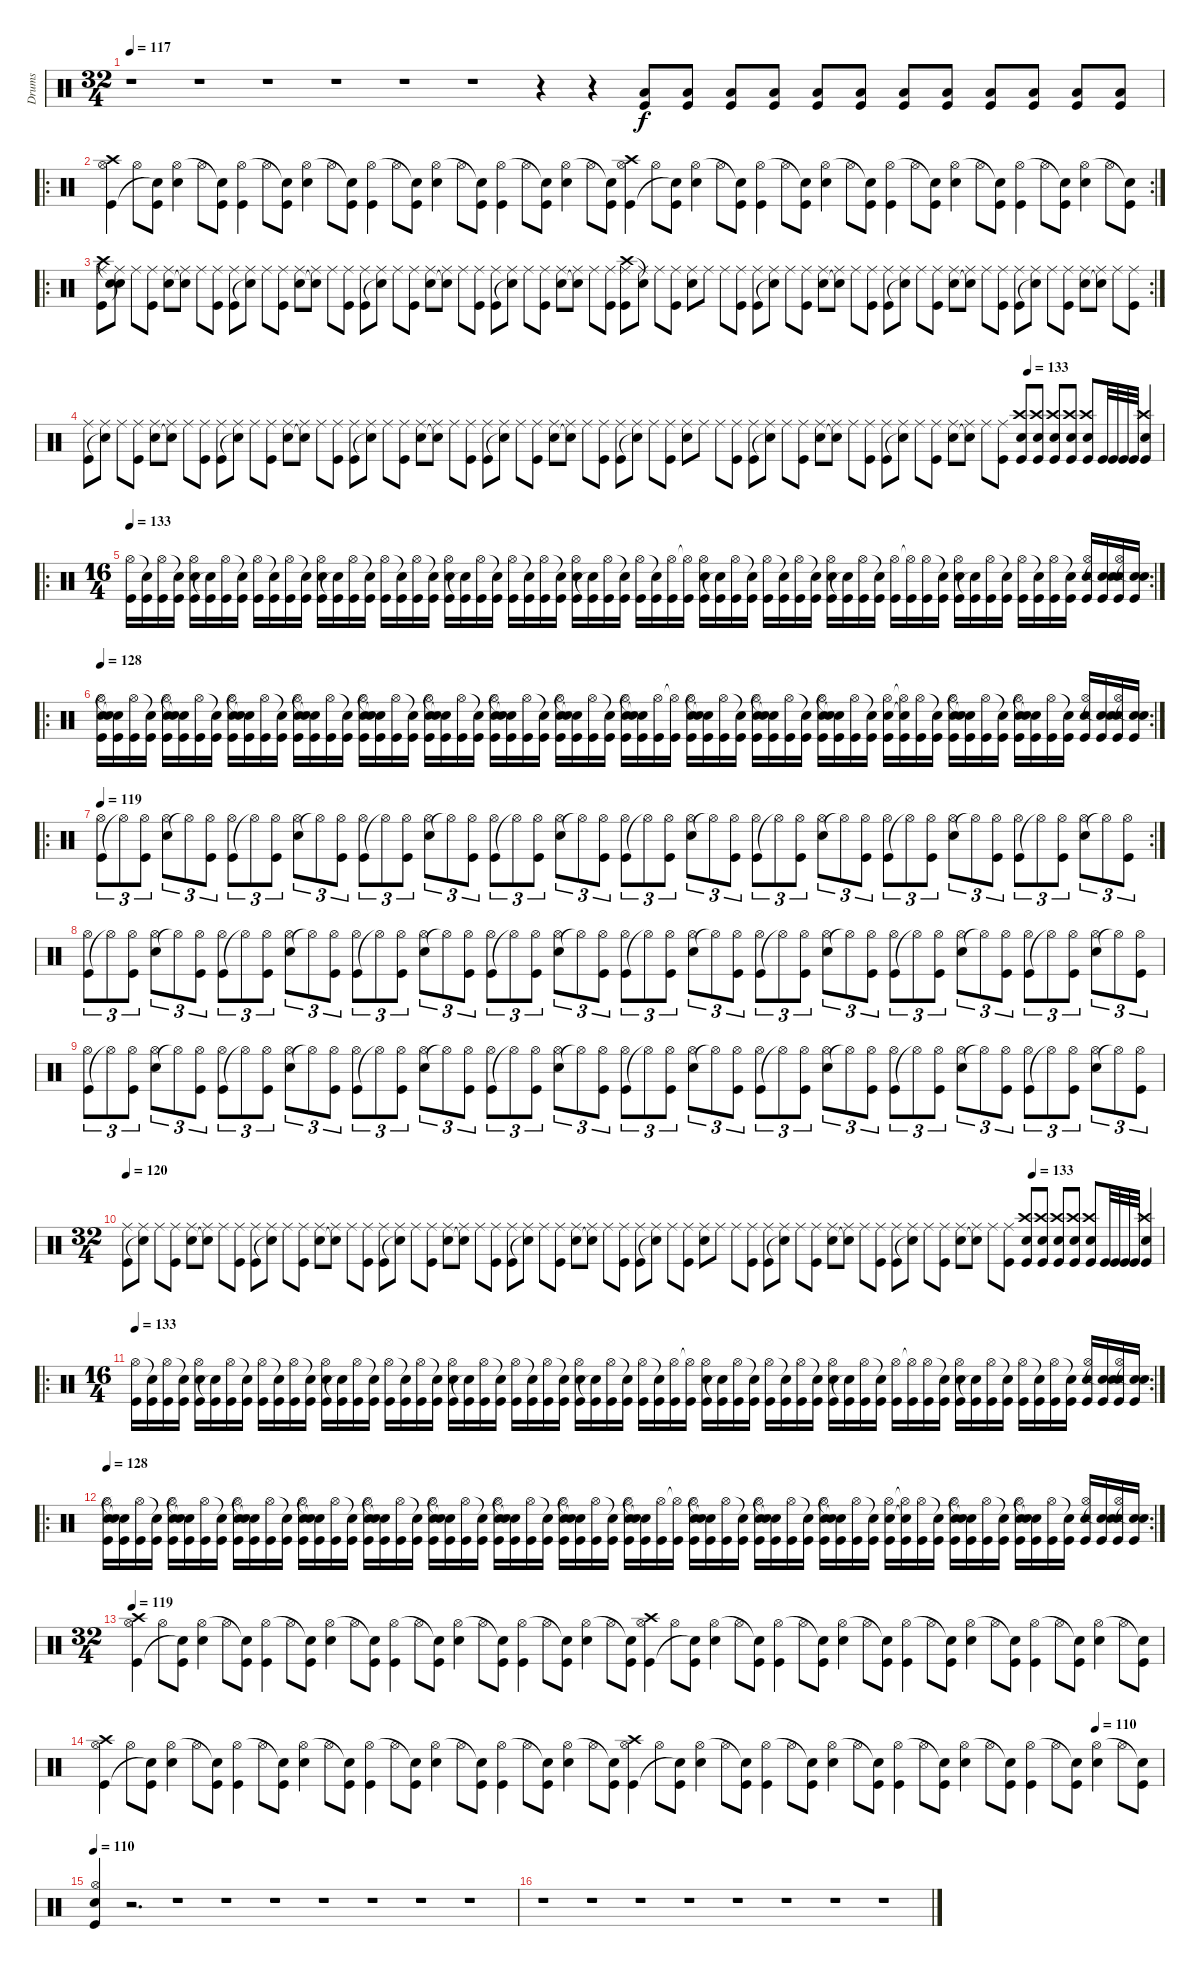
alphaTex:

\track ("Drums" "Drums") {instrument percussion}
\staff {score}
\articulation defaults
\ts (32 4)
\tempo 117
\clef neutral
\ks c
r.1{dy f} r.1 r.1 r.1 r.1 r.1 r.4 r.4 ("Low Tom (hit)" "Kick (hit)").8 ("Low Tom (hit)" "Kick (hit)").8 ("Low Tom (hit)" "Kick (hit)").8 ("Low Tom (hit)" "Kick (hit)").8 ("Low Tom (hit)" "Kick (hit)").8 ("Low Tom (hit)" "Kick (hit)").8 ("Low Tom (hit)" "Kick (hit)").8 ("Low Tom (hit)" "Kick (hit)").8 ("Low Tom (hit)" "Kick (hit)").8 ("Low Tom (hit)" "Kick (hit)").8 ("Low Tom (hit)" "Kick (hit)").8 ("Low Tom (hit)" "Kick (hit)").8 |
\ro
\rc 2
("Crash high (hit)" "Kick (hit)" "Hi-Hat (open)").4 "Hi-Hat (open)".8 ("Kick (hit)" "Snare (hit)"{t}).8 ("Snare (hit) 2" "Hi-Hat (open)").4 "Hi-Hat (open)".8 ("Kick (hit)" "Snare (hit)"{t}).8 ("Kick (hit)" "Hi-Hat (open)").4 "Hi-Hat (open)".8 ("Kick (hit)" "Snare (hit)"{t}).8 ("Snare (hit) 2" "Hi-Hat (open)").4 "Hi-Hat (open)".8 ("Kick (hit)" "Snare (hit)"{t}).8 ("Kick (hit)" "Hi-Hat (open)").4 "Hi-Hat (open)".8 ("Kick (hit)" "Snare (hit)"{t}).8 ("Snare (hit) 2" "Hi-Hat (open)").4 "Hi-Hat (open)".8 ("Kick (hit)" "Snare (hit)"{t}).8 ("Kick (hit)" "Hi-Hat (open)").4 "Hi-Hat (open)".8 ("Kick (hit)" "Snare (hit)"{t}).8 ("Snare (hit) 2" "Hi-Hat (open)").4 "Hi-Hat (open)".8 ("Kick (hit)" "Snare (hit)"{t}).8 ("Crash high (hit)" "Kick (hit)" "Hi-Hat (open)").4 "Hi-Hat (open)".8 ("Kick (hit)" "Snare (hit)"{t}).8 ("Snare (hit) 2" "Hi-Hat (open)").4 "Hi-Hat (open)".8 ("Kick (hit)" "Snare (hit)"{t}).8 ("Kick (hit)" "Hi-Hat (open)").4 "Hi-Hat (open)".8 ("Kick (hit)" "Snare (hit)"{t}).8 ("Snare (hit) 2" "Hi-Hat (open)").4 "Hi-Hat (open)".8 ("Kick (hit)" "Snare (hit)"{t}).8 ("Kick (hit)" "Hi-Hat (open)").4 "Hi-Hat (open)".8 ("Kick (hit)" "Snare (hit)"{t}).8 ("Snare (hit) 2" "Hi-Hat (open)").4 "Hi-Hat (open)".8 ("Kick (hit)" "Snare (hit)"{t}).8 ("Kick (hit)" "Hi-Hat (open)").4 "Hi-Hat (open)".8 ("Kick (hit)" "Snare (hit)"{t}).8 ("Snare (hit) 2" "Hi-Hat (open)").4 "Hi-Hat (open)".8 ("Kick (hit)" "Snare (hit)"{t}).8 |
\ro
\rc 2
("Crash high (hit)" "Kick (hit)" "Ride (middle)").8 ("Snare (hit)"{t} "Snare (hit)"{t} "Ride (middle)").8 "Ride (middle)".8 ("Kick (hit)" "Ride (middle)").8 ("Snare (hit) 2" "Ride (middle)").8 ("Snare (hit)"{t} "Ride (middle)").8 "Ride (middle)".8 ("Kick (hit)" "Ride (middle)").8 ("Kick (hit)" "Ride (middle)").8 ("Snare (hit)"{t} "Ride (middle)").8 "Ride (middle)".8 ("Kick (hit)" "Ride (middle)").8 ("Snare (hit) 2" "Ride (middle)").8 ("Snare (hit)"{t} "Ride (middle)").8 "Ride (middle)".8 ("Kick (hit)" "Ride (middle)").8 ("Kick (hit)" "Ride (middle)").8 ("Snare (hit)"{t} "Ride (middle)").8 "Ride (middle)".8 ("Kick (hit)" "Ride (middle)").8 ("Snare (hit) 2" "Ride (middle)").8 ("Snare (hit)"{t} "Ride (middle)").8 "Ride (middle)".8 ("Kick (hit)" "Ride (middle)").8 ("Kick (hit)" "Ride (middle)").8 ("Snare (hit)"{t} "Ride (middle)").8 "Ride (middle)".8 ("Kick (hit)" "Ride (middle)").8 ("Snare (hit) 2" "Ride (middle)").8 ("Snare (hit)"{t} "Ride (middle)").8 "Ride (middle)".8 ("Kick (hit)" "Ride (middle)").8 ("Crash high (hit)" "Kick (hit)" "Ride (middle)").8 ("Snare (hit)"{t} "Ride (middle)").8 "Ride (middle)".8 ("Kick (hit)" "Ride (middle)").8 ("Snare (hit) 2" "Ride (middle)").8 "Ride (middle)".8 "Ride (middle)".8 ("Kick (hit)" "Ride (middle)").8 ("Kick (hit)" "Ride (middle)").8 ("Snare (hit)"{t} "Ride (middle)").8 "Ride (middle)".8 ("Kick (hit)" "Ride (middle)").8 ("Snare (hit) 2" "Ride (middle)").8 ("Snare (hit)"{t} "Ride (middle)").8 "Ride (middle)".8 ("Kick (hit)" "Ride (middle)").8 ("Kick (hit)" "Ride (middle)").8 ("Snare (hit)"{t} "Ride (middle)").8 "Ride (middle)".8 ("Kick (hit)" "Ride (middle)").8 ("Snare (hit) 2" "Ride (middle)").8 ("Snare (hit)"{t} "Ride (middle)").8 "Ride (middle)".8 ("Kick (hit)" "Ride (middle)").8 ("Kick (hit)" "Ride (middle)").8 ("Snare (hit)"{t} "Ride (middle)").8 "Ride (middle)".8 ("Kick (hit)" "Ride (middle)").8 ("Snare (hit) 2" "Ride (middle)").8 ("Snare (hit)"{t} "Ride (middle)").8 "Ride (middle)".8 ("Kick (hit)" "Ride (middle)").8 |
\tempo (133 0.875)
("Kick (hit)" "Ride (middle)").8 ("Snare (hit)"{t} "Ride (middle)").8 "Ride (middle)".8 ("Kick (hit)" "Ride (middle)").8 ("Snare (hit) 2" "Ride (middle)").8 ("Snare (hit)"{t} "Ride (middle)").8 "Ride (middle)".8 ("Kick (hit)" "Ride (middle)").8 ("Kick (hit)" "Ride (middle)").8 ("Snare (hit)"{t} "Ride (middle)").8 "Ride (middle)".8 ("Kick (hit)" "Ride (middle)").8 ("Snare (hit) 2" "Ride (middle)").8 ("Snare (hit)"{t} "Ride (middle)").8 "Ride (middle)".8 ("Kick (hit)" "Ride (middle)").8 ("Kick (hit)" "Ride (middle)").8 ("Snare (hit)"{t} "Ride (middle)").8 "Ride (middle)".8 ("Kick (hit)" "Ride (middle)").8 ("Snare (hit) 2" "Ride (middle)").8 ("Snare (hit)"{t} "Ride (middle)").8 "Ride (middle)".8 ("Kick (hit)" "Ride (middle)").8 ("Kick (hit)" "Ride (middle)").8 ("Snare (hit)"{t} "Ride (middle)").8 "Ride (middle)".8 ("Kick (hit)" "Ride (middle)").8 ("Snare (hit) 2" "Ride (middle)").8 ("Snare (hit)"{t} "Ride (middle)").8 "Ride (middle)".8 ("Kick (hit)" "Ride (middle)").8 ("Kick (hit)" "Ride (middle)").8 ("Snare (hit)"{t} "Ride (middle)").8 "Ride (middle)".8 ("Kick (hit)" "Ride (middle)").8 ("Snare (hit) 2" "Ride (middle)").8 "Ride (middle)".8 "Ride (middle)".8 ("Kick (hit)" "Ride (middle)").8 ("Kick (hit)" "Ride (middle)").8 ("Snare (hit)"{t} "Ride (middle)").8 "Ride (middle)".8 ("Kick (hit)" "Ride (middle)").8 ("Snare (hit) 2" "Ride (middle)").8 ("Snare (hit)"{t} "Ride (middle)").8 "Ride (middle)".8 ("Kick (hit)" "Ride (middle)").8 ("Kick (hit)" "Ride (middle)").8 ("Snare (hit)"{t} "Ride (middle)").8 "Ride (middle)".8 ("Kick (hit)" "Ride (middle)").8 ("Snare (hit) 2" "Ride (middle)").8 ("Snare (hit)"{t} "Ride (middle)").8 "Ride (middle)".8 ("Kick (hit)" "Ride (middle)").8 ("Crash high (hit)" "Snare (hit) 2" "Kick (hit)").8 ("Crash high (hit)" "Snare (hit) 2" "Kick (hit)").8 ("Crash high (hit)" "Snare (hit) 2" "Kick (hit)").8 ("Crash high (hit)" "Snare (hit) 2" "Kick (hit)").8 ("Crash high (hit)" "Snare (hit) 2" "Kick (hit)").8 "Kick (hit)".32 "Kick (hit)".32 "Kick (hit)".32 "Kick (hit)".32 ("Crash high (hit)" "Snare (hit) 2" "Kick (hit)").4 |
\ro
\rc 2
\ts (16 4)
\tempo 133
("Kick (hit)" "Hi-Hat (open)").16 ("Kick (hit)" "Snare (hit)"{t}).16 ("Kick (hit)" "Hi-Hat (open)").16 ("Kick (hit)" "Snare (hit)"{t}).16 ("Snare (hit) 2" "Kick (hit)" "Hi-Hat (open)").16 ("Kick (hit)" "Snare (hit)"{t}).16 ("Kick (hit)" "Hi-Hat (open)").16 ("Kick (hit)" "Snare (hit)"{t}).16 ("Kick (hit)" "Hi-Hat (open)").16 ("Kick (hit)" "Snare (hit)"{t}).16 ("Kick (hit)" "Hi-Hat (open)").16 ("Kick (hit)" "Snare (hit)"{t}).16 ("Snare (hit) 2" "Kick (hit)" "Hi-Hat (open)").16 ("Kick (hit)" "Snare (hit)"{t}).16 ("Kick (hit)" "Hi-Hat (open)").16 ("Kick (hit)" "Snare (hit)"{t}).16 ("Kick (hit)" "Hi-Hat (open)").16 ("Kick (hit)" "Snare (hit)"{t}).16 ("Kick (hit)" "Hi-Hat (open)").16 ("Kick (hit)" "Snare (hit)"{t}).16 ("Snare (hit) 2" "Kick (hit)" "Hi-Hat (open)").16 ("Kick (hit)" "Snare (hit)"{t}).16 ("Kick (hit)" "Hi-Hat (open)").16 ("Kick (hit)" "Snare (hit)"{t}).16 ("Kick (hit)" "Hi-Hat (open)").16 ("Kick (hit)" "Snare (hit)"{t}).16 ("Kick (hit)" "Hi-Hat (open)").16 ("Kick (hit)" "Snare (hit)"{t}).16 ("Snare (hit) 2" "Kick (hit)" "Hi-Hat (open)").16 ("Kick (hit)" "Snare (hit)"{t}).16 ("Kick (hit)" "Hi-Hat (open)").16 ("Kick (hit)" "Snare (hit)"{t}).16 ("Kick (hit)" "Hi-Hat (open)").16 ("Kick (hit)" "Snare (hit)"{t}).16 ("Kick (hit)" "Hi-Hat (open)").16 ("Kick (hit)" "Hi-Hat (open)"{t}).16 ("Snare (hit) 2" "Kick (hit)" "Hi-Hat (open)").16 ("Kick (hit)" "Snare (hit)"{t}).16 ("Kick (hit)" "Hi-Hat (open)").16 ("Kick (hit)" "Snare (hit)"{t}).16 ("Kick (hit)" "Hi-Hat (open)").16 ("Kick (hit)" "Snare (hit)"{t}).16 ("Kick (hit)" "Hi-Hat (open)").16 ("Kick (hit)" "Snare (hit)"{t}).16 ("Snare (hit) 2" "Kick (hit)" "Hi-Hat (open)").16 ("Kick (hit)" "Snare (hit)"{t}).16 ("Kick (hit)" "Hi-Hat (open)").16 ("Kick (hit)" "Snare (hit)"{t}).16 ("Kick (hit)" "Hi-Hat (open)").16 ("Kick (hit)" "Hi-Hat (open)"{t}).16 ("Kick (hit)" "Hi-Hat (open)").16 ("Kick (hit)" "Snare (hit)"{t}).16 ("Snare (hit) 2" "Kick (hit)" "Hi-Hat (open)").16 ("Kick (hit)" "Snare (hit)"{t}).16 ("Kick (hit)" "Hi-Hat (open)").16 ("Kick (hit)" "Snare (hit)"{t}).16 ("Kick (hit)" "Hi-Hat (open)").16 ("Kick (hit)" "Snare (hit)"{t}).16 ("Kick (hit)" "Hi-Hat (open)").16 ("Kick (hit)" "Snare (hit)"{t}).16 ("Snare (hit) 2" "Kick (hit)" "Hi-Hat (open)").16 ("Snare (hit) 2" "Kick (hit)" "Snare (hit)"{t}).16 ("Snare (hit) 2" "Kick (hit)" "Hi-Hat (open)").16 ("Snare (hit) 2" "Kick (hit)" "Snare (hit)"{t}).16 |
\ro
\rc 2
\tempo 128
("Snare (hit) 2" "Kick (hit)" "Hi-Hat (open)").16 ("Snare (hit)"{t} "Kick (hit)" "Snare (hit)"{t}).16 ("Kick (hit)" "Hi-Hat (open)").16 ("Kick (hit)" "Snare (hit)"{t}).16 ("Snare (hit) 2" "Kick (hit)" "Hi-Hat (open)").16 ("Snare (hit)"{t} "Kick (hit)" "Snare (hit)"{t}).16 ("Kick (hit)" "Hi-Hat (open)").16 ("Kick (hit)" "Snare (hit)"{t}).16 ("Snare (hit) 2" "Kick (hit)" "Hi-Hat (open)").16 ("Snare (hit)"{t} "Kick (hit)" "Snare (hit)"{t}).16 ("Kick (hit)" "Hi-Hat (open)").16 ("Kick (hit)" "Snare (hit)"{t}).16 ("Snare (hit) 2" "Kick (hit)" "Hi-Hat (open)").16 ("Snare (hit)"{t} "Kick (hit)" "Snare (hit)"{t}).16 ("Kick (hit)" "Hi-Hat (open)").16 ("Kick (hit)" "Snare (hit)"{t}).16 ("Snare (hit) 2" "Kick (hit)" "Hi-Hat (open)").16 ("Snare (hit)"{t} "Kick (hit)" "Snare (hit)"{t}).16 ("Kick (hit)" "Hi-Hat (open)").16 ("Kick (hit)" "Snare (hit)"{t}).16 ("Snare (hit) 2" "Kick (hit)" "Hi-Hat (open)").16 ("Snare (hit)"{t} "Kick (hit)" "Snare (hit)"{t}).16 ("Kick (hit)" "Hi-Hat (open)").16 ("Kick (hit)" "Snare (hit)"{t}).16 ("Snare (hit) 2" "Kick (hit)" "Hi-Hat (open)").16 ("Snare (hit)"{t} "Kick (hit)" "Snare (hit)"{t}).16 ("Kick (hit)" "Hi-Hat (open)").16 ("Kick (hit)" "Snare (hit)"{t}).16 ("Snare (hit) 2" "Kick (hit)" "Hi-Hat (open)").16 ("Snare (hit)"{t} "Kick (hit)" "Snare (hit)"{t}).16 ("Kick (hit)" "Hi-Hat (open)").16 ("Kick (hit)" "Snare (hit)"{t}).16 ("Snare (hit) 2" "Kick (hit)" "Hi-Hat (open)").16 ("Snare (hit)"{t} "Kick (hit)" "Snare (hit)"{t}).16 ("Kick (hit)" "Hi-Hat (open)").16 ("Kick (hit)" "Hi-Hat (open)"{t}).16 ("Snare (hit) 2" "Kick (hit)" "Hi-Hat (open)").16 ("Snare (hit)"{t} "Kick (hit)" "Snare (hit)"{t}).16 ("Kick (hit)" "Hi-Hat (open)").16 ("Kick (hit)" "Snare (hit)"{t}).16 ("Snare (hit) 2" "Kick (hit)" "Hi-Hat (open)").16 ("Snare (hit)"{t} "Kick (hit)" "Snare (hit)"{t}).16 ("Kick (hit)" "Hi-Hat (open)").16 ("Kick (hit)" "Snare (hit)"{t}).16 ("Snare (hit) 2" "Kick (hit)" "Hi-Hat (open)").16 ("Snare (hit)"{t} "Kick (hit)" "Snare (hit)"{t}).16 ("Kick (hit)" "Hi-Hat (open)").16 ("Kick (hit)" "Snare (hit)"{t}).16 ("Snare (hit) 2" "Kick (hit)" "Hi-Hat (open)").16 ("Snare (hit)"{t} "Kick (hit)" "Hi-Hat (open)"{t}).16 ("Kick (hit)" "Hi-Hat (open)").16 ("Kick (hit)" "Snare (hit)"{t}).16 ("Snare (hit) 2" "Kick (hit)" "Hi-Hat (open)").16 ("Snare (hit)"{t} "Kick (hit)" "Snare (hit)"{t}).16 ("Kick (hit)" "Hi-Hat (open)").16 ("Kick (hit)" "Snare (hit)"{t}).16 ("Snare (hit) 2" "Kick (hit)" "Hi-Hat (open)").16 ("Snare (hit)"{t} "Kick (hit)" "Snare (hit)"{t}).16 ("Kick (hit)" "Hi-Hat (open)").16 ("Kick (hit)" "Snare (hit)"{t}).16 ("Snare (hit) 2" "Kick (hit)" "Hi-Hat (open)").16 ("Snare (hit) 2" "Kick (hit)" "Snare (hit)"{t}).16 ("Snare (hit) 2" "Kick (hit)" "Hi-Hat (open)").16 ("Snare (hit) 2" "Kick (hit)" "Snare (hit)"{t}).16 |
\ro
\rc 2
\tempo 119
("Kick (hit)" "Hi-Hat (open)").8{tu (3 2)} "Hi-Hat (open)"{t}.8{tu (3 2)} ("Kick (hit)" "Hi-Hat (open)").8{tu (3 2)} ("Snare (hit) 2" "Hi-Hat (open)").8{tu (3 2)} "Hi-Hat (open)"{t}.8{tu (3 2)} ("Kick (hit)" "Hi-Hat (open)").8{tu (3 2)} ("Kick (hit)" "Hi-Hat (open)").8{tu (3 2)} "Hi-Hat (open)"{t}.8{tu (3 2)} ("Kick (hit)" "Hi-Hat (open)").8{tu (3 2)} ("Snare (hit) 2" "Hi-Hat (open)").8{tu (3 2)} "Hi-Hat (open)"{t}.8{tu (3 2)} ("Kick (hit)" "Hi-Hat (open)").8{tu (3 2)} ("Kick (hit)" "Hi-Hat (open)").8{tu (3 2)} "Hi-Hat (open)"{t}.8{tu (3 2)} ("Kick (hit)" "Hi-Hat (open)").8{tu (3 2)} ("Snare (hit) 2" "Hi-Hat (open)").8{tu (3 2)} "Hi-Hat (open)"{t}.8{tu (3 2)} ("Kick (hit)" "Hi-Hat (open)").8{tu (3 2)} ("Kick (hit)" "Hi-Hat (open)").8{tu (3 2)} "Hi-Hat (open)"{t}.8{tu (3 2)} ("Kick (hit)" "Hi-Hat (open)").8{tu (3 2)} ("Snare (hit) 2" "Hi-Hat (open)").8{tu (3 2)} "Hi-Hat (open)"{t}.8{tu (3 2)} ("Kick (hit)" "Hi-Hat (open)").8{tu (3 2)} ("Kick (hit)" "Hi-Hat (open)").8{tu (3 2)} "Hi-Hat (open)"{t}.8{tu (3 2)} ("Kick (hit)" "Hi-Hat (open)").8{tu (3 2)} ("Snare (hit) 2" "Hi-Hat (open)").8{tu (3 2)} "Hi-Hat (open)"{t}.8{tu (3 2)} ("Kick (hit)" "Hi-Hat (open)").8{tu (3 2)} ("Kick (hit)" "Hi-Hat (open)").8{tu (3 2)} "Hi-Hat (open)"{t}.8{tu (3 2)} ("Kick (hit)" "Hi-Hat (open)").8{tu (3 2)} ("Snare (hit) 2" "Hi-Hat (open)").8{tu (3 2)} "Hi-Hat (open)"{t}.8{tu (3 2)} ("Kick (hit)" "Hi-Hat (open)").8{tu (3 2)} ("Kick (hit)" "Hi-Hat (open)").8{tu (3 2)} "Hi-Hat (open)"{t}.8{tu (3 2)} ("Kick (hit)" "Hi-Hat (open)").8{tu (3 2)} ("Snare (hit) 2" "Hi-Hat (open)").8{tu (3 2)} "Hi-Hat (open)"{t}.8{tu (3 2)} ("Kick (hit)" "Hi-Hat (open)").8{tu (3 2)} ("Kick (hit)" "Hi-Hat (open)").8{tu (3 2)} "Hi-Hat (open)"{t}.8{tu (3 2)} ("Kick (hit)" "Hi-Hat (open)").8{tu (3 2)} ("Snare (hit) 2" "Hi-Hat (open)").8{tu (3 2)} "Hi-Hat (open)"{t}.8{tu (3 2)} ("Kick (hit)" "Hi-Hat (open)").8{tu (3 2)} |
("Kick (hit)" "Hi-Hat (open)").8{tu (3 2)} "Hi-Hat (open)"{t}.8{tu (3 2)} ("Kick (hit)" "Hi-Hat (open)").8{tu (3 2)} ("Snare (hit) 2" "Hi-Hat (open)").8{tu (3 2)} "Hi-Hat (open)"{t}.8{tu (3 2)} ("Kick (hit)" "Hi-Hat (open)").8{tu (3 2)} ("Kick (hit)" "Hi-Hat (open)").8{tu (3 2)} "Hi-Hat (open)"{t}.8{tu (3 2)} ("Kick (hit)" "Hi-Hat (open)").8{tu (3 2)} ("Snare (hit) 2" "Hi-Hat (open)").8{tu (3 2)} "Hi-Hat (open)"{t}.8{tu (3 2)} ("Kick (hit)" "Hi-Hat (open)").8{tu (3 2)} ("Kick (hit)" "Hi-Hat (open)").8{tu (3 2)} "Hi-Hat (open)"{t}.8{tu (3 2)} ("Kick (hit)" "Hi-Hat (open)").8{tu (3 2)} ("Snare (hit) 2" "Hi-Hat (open)").8{tu (3 2)} "Hi-Hat (open)"{t}.8{tu (3 2)} ("Kick (hit)" "Hi-Hat (open)").8{tu (3 2)} ("Kick (hit)" "Hi-Hat (open)").8{tu (3 2)} "Hi-Hat (open)"{t}.8{tu (3 2)} ("Kick (hit)" "Hi-Hat (open)").8{tu (3 2)} ("Snare (hit) 2" "Hi-Hat (open)").8{tu (3 2)} "Hi-Hat (open)"{t}.8{tu (3 2)} ("Kick (hit)" "Hi-Hat (open)").8{tu (3 2)} ("Kick (hit)" "Hi-Hat (open)").8{tu (3 2)} "Hi-Hat (open)"{t}.8{tu (3 2)} ("Kick (hit)" "Hi-Hat (open)").8{tu (3 2)} ("Snare (hit) 2" "Hi-Hat (open)").8{tu (3 2)} "Hi-Hat (open)"{t}.8{tu (3 2)} ("Kick (hit)" "Hi-Hat (open)").8{tu (3 2)} ("Kick (hit)" "Hi-Hat (open)").8{tu (3 2)} "Hi-Hat (open)"{t}.8{tu (3 2)} ("Kick (hit)" "Hi-Hat (open)").8{tu (3 2)} ("Snare (hit) 2" "Hi-Hat (open)").8{tu (3 2)} "Hi-Hat (open)"{t}.8{tu (3 2)} ("Kick (hit)" "Hi-Hat (open)").8{tu (3 2)} ("Kick (hit)" "Hi-Hat (open)").8{tu (3 2)} "Hi-Hat (open)"{t}.8{tu (3 2)} ("Kick (hit)" "Hi-Hat (open)").8{tu (3 2)} ("Snare (hit) 2" "Hi-Hat (open)").8{tu (3 2)} "Hi-Hat (open)"{t}.8{tu (3 2)} ("Kick (hit)" "Hi-Hat (open)").8{tu (3 2)} ("Kick (hit)" "Hi-Hat (open)").8{tu (3 2)} "Hi-Hat (open)"{t}.8{tu (3 2)} ("Kick (hit)" "Hi-Hat (open)").8{tu (3 2)} ("Snare (hit) 2" "Hi-Hat (open)").8{tu (3 2)} "Hi-Hat (open)"{t}.8{tu (3 2)} ("Kick (hit)" "Hi-Hat (open)").8{tu (3 2)} |
("Kick (hit)" "Hi-Hat (open)").8{tu (3 2)} "Hi-Hat (open)"{t}.8{tu (3 2)} ("Kick (hit)" "Hi-Hat (open)").8{tu (3 2)} ("Snare (hit) 2" "Hi-Hat (open)").8{tu (3 2)} "Hi-Hat (open)"{t}.8{tu (3 2)} ("Kick (hit)" "Hi-Hat (open)").8{tu (3 2)} ("Kick (hit)" "Hi-Hat (open)").8{tu (3 2)} "Hi-Hat (open)"{t}.8{tu (3 2)} ("Kick (hit)" "Hi-Hat (open)").8{tu (3 2)} ("Snare (hit) 2" "Hi-Hat (open)").8{tu (3 2)} "Hi-Hat (open)"{t}.8{tu (3 2)} ("Kick (hit)" "Hi-Hat (open)").8{tu (3 2)} ("Kick (hit)" "Hi-Hat (open)").8{tu (3 2)} "Hi-Hat (open)"{t}.8{tu (3 2)} ("Kick (hit)" "Hi-Hat (open)").8{tu (3 2)} ("Snare (hit) 2" "Hi-Hat (open)").8{tu (3 2)} "Hi-Hat (open)"{t}.8{tu (3 2)} ("Kick (hit)" "Hi-Hat (open)").8{tu (3 2)} ("Kick (hit)" "Hi-Hat (open)").8{tu (3 2)} "Hi-Hat (open)"{t}.8{tu (3 2)} ("Kick (hit)" "Hi-Hat (open)").8{tu (3 2)} ("Snare (hit) 2" "Hi-Hat (open)").8{tu (3 2)} "Hi-Hat (open)"{t}.8{tu (3 2)} ("Kick (hit)" "Hi-Hat (open)").8{tu (3 2)} ("Kick (hit)" "Hi-Hat (open)").8{tu (3 2)} "Hi-Hat (open)"{t}.8{tu (3 2)} ("Kick (hit)" "Hi-Hat (open)").8{tu (3 2)} ("Snare (hit) 2" "Hi-Hat (open)").8{tu (3 2)} "Hi-Hat (open)"{t}.8{tu (3 2)} ("Kick (hit)" "Hi-Hat (open)").8{tu (3 2)} ("Kick (hit)" "Hi-Hat (open)").8{tu (3 2)} "Hi-Hat (open)"{t}.8{tu (3 2)} ("Kick (hit)" "Hi-Hat (open)").8{tu (3 2)} ("Snare (hit) 2" "Hi-Hat (open)").8{tu (3 2)} "Hi-Hat (open)"{t}.8{tu (3 2)} ("Kick (hit)" "Hi-Hat (open)").8{tu (3 2)} ("Kick (hit)" "Hi-Hat (open)").8{tu (3 2)} "Hi-Hat (open)"{t}.8{tu (3 2)} ("Kick (hit)" "Hi-Hat (open)").8{tu (3 2)} ("Snare (hit) 2" "Hi-Hat (open)").8{tu (3 2)} "Hi-Hat (open)"{t}.8{tu (3 2)} ("Kick (hit)" "Hi-Hat (open)").8{tu (3 2)} ("Kick (hit)" "Hi-Hat (open)").8{tu (3 2)} "Hi-Hat (open)"{t}.8{tu (3 2)} ("Kick (hit)" "Hi-Hat (open)").8{tu (3 2)} ("Snare (hit) 2" "Hi-Hat (open)").8{tu (3 2)} "Hi-Hat (open)"{t}.8{tu (3 2)} ("Kick (hit)" "Hi-Hat (open)").8{tu (3 2)} |
\ts (32 4)
\tempo 120
\tempo (133 0.875)
("Kick (hit)" "Ride (middle)").8 ("Snare (hit)"{t} "Ride (middle)").8 "Ride (middle)".8 ("Kick (hit)" "Ride (middle)").8 ("Snare (hit) 2" "Ride (middle)").8 ("Snare (hit)"{t} "Ride (middle)").8 "Ride (middle)".8 ("Kick (hit)" "Ride (middle)").8 ("Kick (hit)" "Ride (middle)").8 ("Snare (hit)"{t} "Ride (middle)").8 "Ride (middle)".8 ("Kick (hit)" "Ride (middle)").8 ("Snare (hit) 2" "Ride (middle)").8 ("Snare (hit)"{t} "Ride (middle)").8 "Ride (middle)".8 ("Kick (hit)" "Ride (middle)").8 ("Kick (hit)" "Ride (middle)").8 ("Snare (hit)"{t} "Ride (middle)").8 "Ride (middle)".8 ("Kick (hit)" "Ride (middle)").8 ("Snare (hit) 2" "Ride (middle)").8 ("Snare (hit)"{t} "Ride (middle)").8 "Ride (middle)".8 ("Kick (hit)" "Ride (middle)").8 ("Kick (hit)" "Ride (middle)").8 ("Snare (hit)"{t} "Ride (middle)").8 "Ride (middle)".8 ("Kick (hit)" "Ride (middle)").8 ("Snare (hit) 2" "Ride (middle)").8 ("Snare (hit)"{t} "Ride (middle)").8 "Ride (middle)".8 ("Kick (hit)" "Ride (middle)").8 ("Kick (hit)" "Ride (middle)").8 ("Snare (hit)"{t} "Ride (middle)").8 "Ride (middle)".8 ("Kick (hit)" "Ride (middle)").8 ("Snare (hit) 2" "Ride (middle)").8 "Ride (middle)".8 "Ride (middle)".8 ("Kick (hit)" "Ride (middle)").8 ("Kick (hit)" "Ride (middle)").8 ("Snare (hit)"{t} "Ride (middle)").8 "Ride (middle)".8 ("Kick (hit)" "Ride (middle)").8 ("Snare (hit) 2" "Ride (middle)").8 ("Snare (hit)"{t} "Ride (middle)").8 "Ride (middle)".8 ("Kick (hit)" "Ride (middle)").8 ("Kick (hit)" "Ride (middle)").8 ("Snare (hit)"{t} "Ride (middle)").8 "Ride (middle)".8 ("Kick (hit)" "Ride (middle)").8 ("Snare (hit) 2" "Ride (middle)").8 ("Snare (hit)"{t} "Ride (middle)").8 "Ride (middle)".8 ("Kick (hit)" "Ride (middle)").8 ("Crash high (hit)" "Snare (hit) 2" "Kick (hit)").8 ("Crash high (hit)" "Snare (hit) 2" "Kick (hit)").8 ("Crash high (hit)" "Snare (hit) 2" "Kick (hit)").8 ("Crash high (hit)" "Snare (hit) 2" "Kick (hit)").8 ("Crash high (hit)" "Snare (hit) 2" "Kick (hit)").8 "Kick (hit)".32 "Kick (hit)".32 "Kick (hit)".32 "Kick (hit)".32 ("Crash high (hit)" "Snare (hit) 2" "Kick (hit)").4 |
\ro
\rc 2
\ts (16 4)
\tempo 133
("Kick (hit)" "Hi-Hat (open)").16 ("Kick (hit)" "Snare (hit)"{t}).16 ("Kick (hit)" "Hi-Hat (open)").16 ("Kick (hit)" "Snare (hit)"{t}).16 ("Snare (hit) 2" "Kick (hit)" "Hi-Hat (open)").16 ("Kick (hit)" "Snare (hit)"{t}).16 ("Kick (hit)" "Hi-Hat (open)").16 ("Kick (hit)" "Snare (hit)"{t}).16 ("Kick (hit)" "Hi-Hat (open)").16 ("Kick (hit)" "Snare (hit)"{t}).16 ("Kick (hit)" "Hi-Hat (open)").16 ("Kick (hit)" "Snare (hit)"{t}).16 ("Snare (hit) 2" "Kick (hit)" "Hi-Hat (open)").16 ("Kick (hit)" "Snare (hit)"{t}).16 ("Kick (hit)" "Hi-Hat (open)").16 ("Kick (hit)" "Snare (hit)"{t}).16 ("Kick (hit)" "Hi-Hat (open)").16 ("Kick (hit)" "Snare (hit)"{t}).16 ("Kick (hit)" "Hi-Hat (open)").16 ("Kick (hit)" "Snare (hit)"{t}).16 ("Snare (hit) 2" "Kick (hit)" "Hi-Hat (open)").16 ("Kick (hit)" "Snare (hit)"{t}).16 ("Kick (hit)" "Hi-Hat (open)").16 ("Kick (hit)" "Snare (hit)"{t}).16 ("Kick (hit)" "Hi-Hat (open)").16 ("Kick (hit)" "Snare (hit)"{t}).16 ("Kick (hit)" "Hi-Hat (open)").16 ("Kick (hit)" "Snare (hit)"{t}).16 ("Snare (hit) 2" "Kick (hit)" "Hi-Hat (open)").16 ("Kick (hit)" "Snare (hit)"{t}).16 ("Kick (hit)" "Hi-Hat (open)").16 ("Kick (hit)" "Snare (hit)"{t}).16 ("Kick (hit)" "Hi-Hat (open)").16 ("Kick (hit)" "Snare (hit)"{t}).16 ("Kick (hit)" "Hi-Hat (open)").16 ("Kick (hit)" "Hi-Hat (open)"{t}).16 ("Snare (hit) 2" "Kick (hit)" "Hi-Hat (open)").16 ("Kick (hit)" "Snare (hit)"{t}).16 ("Kick (hit)" "Hi-Hat (open)").16 ("Kick (hit)" "Snare (hit)"{t}).16 ("Kick (hit)" "Hi-Hat (open)").16 ("Kick (hit)" "Snare (hit)"{t}).16 ("Kick (hit)" "Hi-Hat (open)").16 ("Kick (hit)" "Snare (hit)"{t}).16 ("Snare (hit) 2" "Kick (hit)" "Hi-Hat (open)").16 ("Kick (hit)" "Snare (hit)"{t}).16 ("Kick (hit)" "Hi-Hat (open)").16 ("Kick (hit)" "Snare (hit)"{t}).16 ("Kick (hit)" "Hi-Hat (open)").16 ("Kick (hit)" "Hi-Hat (open)"{t}).16 ("Kick (hit)" "Hi-Hat (open)").16 ("Kick (hit)" "Snare (hit)"{t}).16 ("Snare (hit) 2" "Kick (hit)" "Hi-Hat (open)").16 ("Kick (hit)" "Snare (hit)"{t}).16 ("Kick (hit)" "Hi-Hat (open)").16 ("Kick (hit)" "Snare (hit)"{t}).16 ("Kick (hit)" "Hi-Hat (open)").16 ("Kick (hit)" "Snare (hit)"{t}).16 ("Kick (hit)" "Hi-Hat (open)").16 ("Kick (hit)" "Snare (hit)"{t}).16 ("Snare (hit) 2" "Kick (hit)" "Hi-Hat (open)").16 ("Snare (hit) 2" "Kick (hit)" "Snare (hit)"{t}).16 ("Snare (hit) 2" "Kick (hit)" "Hi-Hat (open)").16 ("Snare (hit) 2" "Kick (hit)" "Snare (hit)"{t}).16 |
\ro
\rc 2
\tempo 128
("Snare (hit) 2" "Kick (hit)" "Hi-Hat (open)").16 ("Snare (hit)"{t} "Kick (hit)" "Snare (hit)"{t}).16 ("Kick (hit)" "Hi-Hat (open)").16 ("Kick (hit)" "Snare (hit)"{t}).16 ("Snare (hit) 2" "Kick (hit)" "Hi-Hat (open)").16 ("Snare (hit)"{t} "Kick (hit)" "Snare (hit)"{t}).16 ("Kick (hit)" "Hi-Hat (open)").16 ("Kick (hit)" "Snare (hit)"{t}).16 ("Snare (hit) 2" "Kick (hit)" "Hi-Hat (open)").16 ("Snare (hit)"{t} "Kick (hit)" "Snare (hit)"{t}).16 ("Kick (hit)" "Hi-Hat (open)").16 ("Kick (hit)" "Snare (hit)"{t}).16 ("Snare (hit) 2" "Kick (hit)" "Hi-Hat (open)").16 ("Snare (hit)"{t} "Kick (hit)" "Snare (hit)"{t}).16 ("Kick (hit)" "Hi-Hat (open)").16 ("Kick (hit)" "Snare (hit)"{t}).16 ("Snare (hit) 2" "Kick (hit)" "Hi-Hat (open)").16 ("Snare (hit)"{t} "Kick (hit)" "Snare (hit)"{t}).16 ("Kick (hit)" "Hi-Hat (open)").16 ("Kick (hit)" "Snare (hit)"{t}).16 ("Snare (hit) 2" "Kick (hit)" "Hi-Hat (open)").16 ("Snare (hit)"{t} "Kick (hit)" "Snare (hit)"{t}).16 ("Kick (hit)" "Hi-Hat (open)").16 ("Kick (hit)" "Snare (hit)"{t}).16 ("Snare (hit) 2" "Kick (hit)" "Hi-Hat (open)").16 ("Snare (hit)"{t} "Kick (hit)" "Snare (hit)"{t}).16 ("Kick (hit)" "Hi-Hat (open)").16 ("Kick (hit)" "Snare (hit)"{t}).16 ("Snare (hit) 2" "Kick (hit)" "Hi-Hat (open)").16 ("Snare (hit)"{t} "Kick (hit)" "Snare (hit)"{t}).16 ("Kick (hit)" "Hi-Hat (open)").16 ("Kick (hit)" "Snare (hit)"{t}).16 ("Snare (hit) 2" "Kick (hit)" "Hi-Hat (open)").16 ("Snare (hit)"{t} "Kick (hit)" "Snare (hit)"{t}).16 ("Kick (hit)" "Hi-Hat (open)").16 ("Kick (hit)" "Hi-Hat (open)"{t}).16 ("Snare (hit) 2" "Kick (hit)" "Hi-Hat (open)").16 ("Snare (hit)"{t} "Kick (hit)" "Snare (hit)"{t}).16 ("Kick (hit)" "Hi-Hat (open)").16 ("Kick (hit)" "Snare (hit)"{t}).16 ("Snare (hit) 2" "Kick (hit)" "Hi-Hat (open)").16 ("Snare (hit)"{t} "Kick (hit)" "Snare (hit)"{t}).16 ("Kick (hit)" "Hi-Hat (open)").16 ("Kick (hit)" "Snare (hit)"{t}).16 ("Snare (hit) 2" "Kick (hit)" "Hi-Hat (open)").16 ("Snare (hit)"{t} "Kick (hit)" "Snare (hit)"{t}).16 ("Kick (hit)" "Hi-Hat (open)").16 ("Kick (hit)" "Snare (hit)"{t}).16 ("Snare (hit) 2" "Kick (hit)" "Hi-Hat (open)").16 ("Snare (hit)"{t} "Kick (hit)" "Hi-Hat (open)"{t}).16 ("Kick (hit)" "Hi-Hat (open)").16 ("Kick (hit)" "Snare (hit)"{t}).16 ("Snare (hit) 2" "Kick (hit)" "Hi-Hat (open)").16 ("Snare (hit)"{t} "Kick (hit)" "Snare (hit)"{t}).16 ("Kick (hit)" "Hi-Hat (open)").16 ("Kick (hit)" "Snare (hit)"{t}).16 ("Snare (hit) 2" "Kick (hit)" "Hi-Hat (open)").16 ("Snare (hit)"{t} "Kick (hit)" "Snare (hit)"{t}).16 ("Kick (hit)" "Hi-Hat (open)").16 ("Kick (hit)" "Snare (hit)"{t}).16 ("Snare (hit) 2" "Kick (hit)" "Hi-Hat (open)").16 ("Snare (hit) 2" "Kick (hit)" "Snare (hit)"{t}).16 ("Snare (hit) 2" "Kick (hit)" "Hi-Hat (open)").16 ("Snare (hit) 2" "Kick (hit)" "Snare (hit)"{t}).16 |
\ts (32 4)
\tempo 119
("Crash high (hit)" "Kick (hit)" "Hi-Hat (open)").4 "Hi-Hat (open)".8 ("Kick (hit)" "Snare (hit)"{t}).8 ("Snare (hit) 2" "Hi-Hat (open)").4 "Hi-Hat (open)".8 ("Kick (hit)" "Snare (hit)"{t}).8 ("Kick (hit)" "Hi-Hat (open)").4 "Hi-Hat (open)".8 ("Kick (hit)" "Snare (hit)"{t}).8 ("Snare (hit) 2" "Hi-Hat (open)").4 "Hi-Hat (open)".8 ("Kick (hit)" "Snare (hit)"{t}).8 ("Kick (hit)" "Hi-Hat (open)").4 "Hi-Hat (open)".8 ("Kick (hit)" "Snare (hit)"{t}).8 ("Snare (hit) 2" "Hi-Hat (open)").4 "Hi-Hat (open)".8 ("Kick (hit)" "Snare (hit)"{t}).8 ("Kick (hit)" "Hi-Hat (open)").4 "Hi-Hat (open)".8 ("Kick (hit)" "Snare (hit)"{t}).8 ("Snare (hit) 2" "Hi-Hat (open)").4 "Hi-Hat (open)".8 ("Kick (hit)" "Snare (hit)"{t}).8 ("Crash high (hit)" "Kick (hit)" "Hi-Hat (open)").4 "Hi-Hat (open)".8 ("Kick (hit)" "Snare (hit)"{t}).8 ("Snare (hit) 2" "Hi-Hat (open)").4 "Hi-Hat (open)".8 ("Kick (hit)" "Snare (hit)"{t}).8 ("Kick (hit)" "Hi-Hat (open)").4 "Hi-Hat (open)".8 ("Kick (hit)" "Snare (hit)"{t}).8 ("Snare (hit) 2" "Hi-Hat (open)").4 "Hi-Hat (open)".8 ("Kick (hit)" "Snare (hit)"{t}).8 ("Kick (hit)" "Hi-Hat (open)").4 "Hi-Hat (open)".8 ("Kick (hit)" "Snare (hit)"{t}).8 ("Snare (hit) 2" "Hi-Hat (open)").4 "Hi-Hat (open)".8 ("Kick (hit)" "Snare (hit)"{t}).8 ("Kick (hit)" "Hi-Hat (open)").4 "Hi-Hat (open)".8 ("Kick (hit)" "Snare (hit)"{t}).8 ("Snare (hit) 2" "Hi-Hat (open)").4 "Hi-Hat (open)".8 ("Kick (hit)" "Snare (hit)"{t}).8 |
\tempo (110 0.9375)
("Crash high (hit)" "Kick (hit)" "Hi-Hat (open)").4 "Hi-Hat (open)".8 ("Kick (hit)" "Snare (hit)"{t}).8 ("Snare (hit) 2" "Hi-Hat (open)").4 "Hi-Hat (open)".8 ("Kick (hit)" "Snare (hit)"{t}).8 ("Kick (hit)" "Hi-Hat (open)").4 "Hi-Hat (open)".8 ("Kick (hit)" "Snare (hit)"{t}).8 ("Snare (hit) 2" "Hi-Hat (open)").4 "Hi-Hat (open)".8 ("Kick (hit)" "Snare (hit)"{t}).8 ("Kick (hit)" "Hi-Hat (open)").4 "Hi-Hat (open)".8 ("Kick (hit)" "Snare (hit)"{t}).8 ("Snare (hit) 2" "Hi-Hat (open)").4 "Hi-Hat (open)".8 ("Kick (hit)" "Snare (hit)"{t}).8 ("Kick (hit)" "Hi-Hat (open)").4 "Hi-Hat (open)".8 ("Kick (hit)" "Snare (hit)"{t}).8 ("Snare (hit) 2" "Hi-Hat (open)").4 "Hi-Hat (open)".8 ("Kick (hit)" "Snare (hit)"{t}).8 ("Crash high (hit)" "Kick (hit)" "Hi-Hat (open)").4 "Hi-Hat (open)".8 ("Kick (hit)" "Snare (hit)"{t}).8 ("Snare (hit) 2" "Hi-Hat (open)").4 "Hi-Hat (open)".8 ("Kick (hit)" "Snare (hit)"{t}).8 ("Kick (hit)" "Hi-Hat (open)").4 "Hi-Hat (open)".8 ("Kick (hit)" "Snare (hit)"{t}).8 ("Snare (hit) 2" "Hi-Hat (open)").4 "Hi-Hat (open)".8 ("Kick (hit)" "Snare (hit)"{t}).8 ("Kick (hit)" "Hi-Hat (open)").4 "Hi-Hat (open)".8 ("Kick (hit)" "Snare (hit)"{t}).8 ("Snare (hit) 2" "Hi-Hat (open)").4 "Hi-Hat (open)".8 ("Kick (hit)" "Snare (hit)"{t}).8 ("Kick (hit)" "Hi-Hat (open)").4 "Hi-Hat (open)".8 ("Kick (hit)" "Snare (hit)"{t}).8 ("Snare (hit) 2" "Hi-Hat (open)").4 "Hi-Hat (open)".8 ("Kick (hit)" "Snare (hit)"{t}).8 |
\tempo 110
("Hi-Hat (open)" "Snare (hit) 2" "Kick (hit)").4 r.2{d} r.1 r.1 r.1 r.1 r.1 r.1 r.1 |
r.1 r.1 r.1 r.1 r.1 r.1 r.1 r.1
